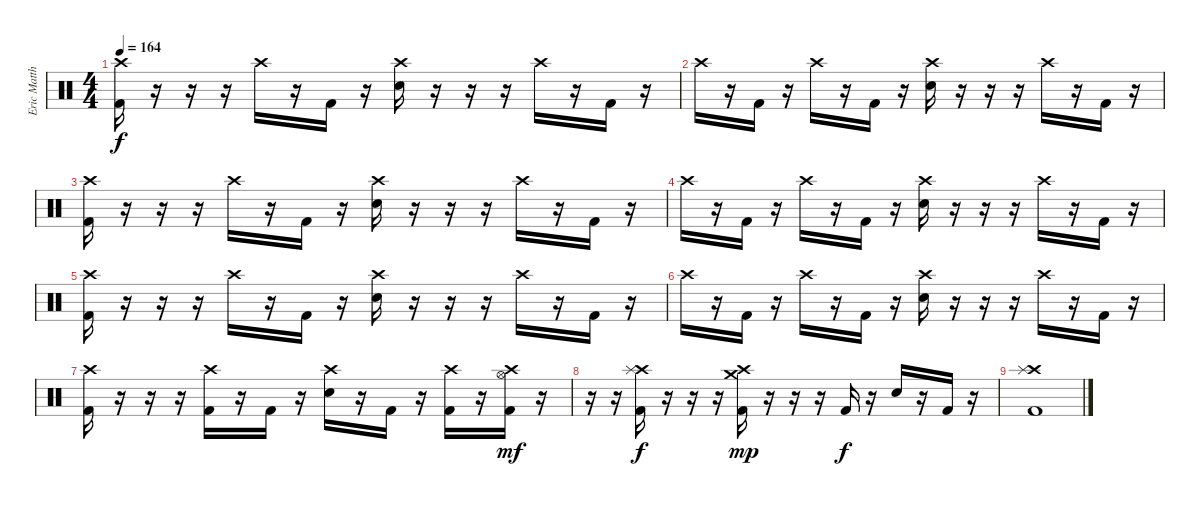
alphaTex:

\track ("Eric Matthews (drums)" "Eric Matth") {instrument percussion}
\staff {score}
\articulation defaults
\ts (4 4)
\tempo 164
\clef neutral
\ks c
("Crash high (hit)" "Kick (hit) 2").16{dy f} r.16 r.16 r.16 "Crash high (hit)".16 r.16 "Kick (hit) 2".16 r.16 ("Crash high (hit)" "Snare (hit) 2").16 r.16 r.16 r.16 "Crash high (hit)".16 r.16 "Kick (hit) 2".16 r.16 |
"Crash high (hit)".16 r.16 "Kick (hit) 2".16 r.16 "Crash high (hit)".16 r.16 "Kick (hit) 2".16 r.16 ("Crash high (hit)" "Snare (hit) 2").16 r.16 r.16 r.16 "Crash high (hit)".16 r.16 "Kick (hit) 2".16 r.16 |
("Crash high (hit)" "Kick (hit) 2").16 r.16 r.16 r.16 "Crash high (hit)".16 r.16 "Kick (hit) 2".16 r.16 ("Crash high (hit)" "Snare (hit) 2").16 r.16 r.16 r.16 "Crash high (hit)".16 r.16 "Kick (hit) 2".16 r.16 |
"Crash high (hit)".16 r.16 "Kick (hit) 2".16 r.16 "Crash high (hit)".16 r.16 "Kick (hit) 2".16 r.16 ("Crash high (hit)" "Snare (hit) 2").16 r.16 r.16 r.16 "Crash high (hit)".16 r.16 "Kick (hit) 2".16 r.16 |
("Crash high (hit)" "Kick (hit) 2").16 r.16 r.16 r.16 "Crash high (hit)".16 r.16 "Kick (hit) 2".16 r.16 ("Crash high (hit)" "Snare (hit) 2").16 r.16 r.16 r.16 "Crash high (hit)".16 r.16 "Kick (hit) 2".16 r.16 |
"Crash high (hit)".16 r.16 "Kick (hit) 2".16 r.16 "Crash high (hit)".16 r.16 "Kick (hit) 2".16 r.16 ("Crash high (hit)" "Snare (hit) 2").16 r.16 r.16 r.16 "Crash high (hit)".16 r.16 "Kick (hit) 2".16 r.16 |
("Crash high (hit)" "Kick (hit) 2").16 r.16 r.16 r.16 ("Crash high (hit)" "Kick (hit) 2").16 r.16 "Kick (hit) 2".16 r.16 ("Crash high (hit)" "Snare (hit) 2").16 r.16 "Kick (hit) 2".16 r.16 ("Crash high (hit)" "Kick (hit) 2").16 r.16 ("Crash high (hit)" "Hi-Hat (open)" "Kick (hit) 2").16{dy mf} r.16 |
r.16 r.16 ("Crash high (hit)" "Splash (hit)" "Kick (hit) 2").16{dy f} r.16 r.16 r.16 ("Crash high (hit)" "Crash medium (hit)" "Kick (hit) 2").16{dy mp} r.16 r.16 r.16 "Kick (hit) 2".16{dy f} r.16 "Snare (hit) 2".16 r.16 "Kick (hit) 2".16 r.16 |
("Crash high (hit)" "Splash (hit)" "Kick (hit) 2").1
